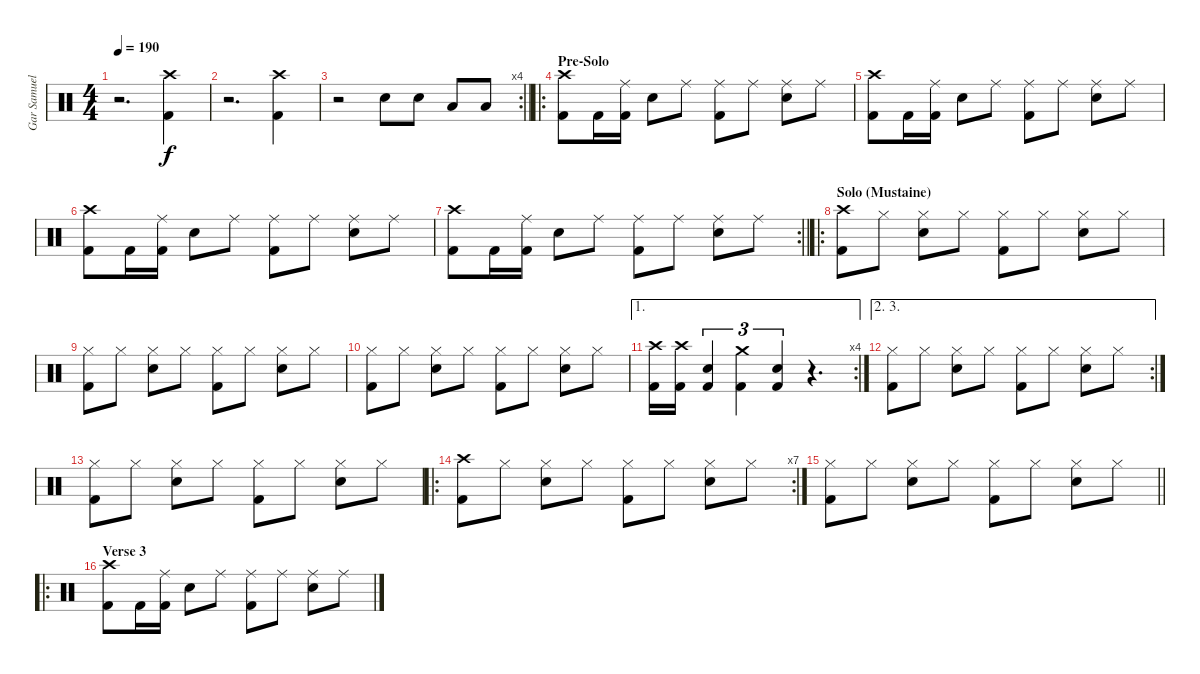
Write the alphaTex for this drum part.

\track ("Gar Samuelson" "Gar Samuel") {instrument percussion}
\staff
\articulation defaults
\ts (4 4)
\tempo 190
\clef neutral
\ks c
r.2{d dy f} ("Crash high (hit)" "Kick (hit) 2").4 |
r.2{d} ("Crash high (hit)" "Kick (hit) 2").4 |
\rc 4
\barLineRight lightlight
r.2 "Snare (hit) 2".8 "Snare (hit) 2".8 "Low Tom (hit)".8 "Low Tom (hit)".8 |
\ro
\section ("" "Pre-Solo")
("Crash high (hit)" "Kick (hit) 2").8 "Kick (hit) 2".16 ("Ride (middle)" "Kick (hit) 2").16 "Snare (hit) 2".8 "Ride (middle)".8 ("Ride (middle)" "Kick (hit) 2").8 "Ride (middle)".8 ("Ride (middle)" "Snare (hit) 2").8 "Ride (middle)".8 |
("Crash high (hit)" "Kick (hit) 2").8 "Kick (hit) 2".16 ("Ride (middle)" "Kick (hit) 2").16 "Snare (hit) 2".8 "Ride (middle)".8 ("Ride (middle)" "Kick (hit) 2").8 "Ride (middle)".8 ("Ride (middle)" "Snare (hit) 2").8 "Ride (middle)".8 |
("Crash high (hit)" "Kick (hit) 2").8 "Kick (hit) 2".16 ("Ride (middle)" "Kick (hit) 2").16 "Snare (hit) 2".8 "Ride (middle)".8 ("Ride (middle)" "Kick (hit) 2").8 "Ride (middle)".8 ("Ride (middle)" "Snare (hit) 2").8 "Ride (middle)".8 |
\rc 2
\barLineRight lightlight
("Crash high (hit)" "Kick (hit) 2").8 "Kick (hit) 2".16 ("Ride (middle)" "Kick (hit) 2").16 "Snare (hit) 2".8 "Ride (middle)".8 ("Ride (middle)" "Kick (hit) 2").8 "Ride (middle)".8 ("Ride (middle)" "Snare (hit) 2").8 "Ride (middle)".8 |
\ro
\section ("" "Solo (Mustaine)")
("Crash high (hit)" "Kick (hit) 2").8 "Hi-Hat (closed)".8 ("Hi-Hat (closed)" "Snare (hit) 2").8 "Hi-Hat (closed)".8 ("Hi-Hat (closed)" "Kick (hit) 2").8 "Hi-Hat (closed)".8 ("Hi-Hat (closed)" "Snare (hit) 2").8 "Hi-Hat (closed)".8 |
("Hi-Hat (closed)" "Kick (hit) 2").8 "Hi-Hat (closed)".8 ("Hi-Hat (closed)" "Snare (hit) 2").8 "Hi-Hat (closed)".8 ("Hi-Hat (closed)" "Kick (hit) 2").8 "Hi-Hat (closed)".8 ("Hi-Hat (closed)" "Snare (hit) 2").8 "Hi-Hat (closed)".8 |
("Hi-Hat (closed)" "Kick (hit) 2").8 "Hi-Hat (closed)".8 ("Hi-Hat (closed)" "Snare (hit) 2").8 "Hi-Hat (closed)".8 ("Hi-Hat (closed)" "Kick (hit) 2").8 "Hi-Hat (closed)".8 ("Hi-Hat (closed)" "Snare (hit) 2").8 "Hi-Hat (closed)".8 |
\ae 1
\rc 4
("Crash high (hit)" "Kick (hit) 2").16 ("Crash high (hit)" "Kick (hit) 2").16 ("Snare (hit) 2" "Kick (hit) 2").4{tu (3 2)} ("Crash medium (hit)" "Kick (hit) 2").4{tu (3 2)} ("Snare (hit) 2" "Kick (hit) 2").4{tu (3 2)} r.4{d} |
\ae (2 3)
\rc 2
("Hi-Hat (closed)" "Kick (hit) 2").8 "Hi-Hat (closed)".8 ("Hi-Hat (closed)" "Snare (hit) 2").8 "Hi-Hat (closed)".8 ("Hi-Hat (closed)" "Kick (hit) 2").8 "Hi-Hat (closed)".8 ("Hi-Hat (closed)" "Snare (hit) 2").8 "Hi-Hat (closed)".8 |
("Hi-Hat (closed)" "Kick (hit) 2").8 "Hi-Hat (closed)".8 ("Hi-Hat (closed)" "Snare (hit) 2").8 "Hi-Hat (closed)".8 ("Hi-Hat (closed)" "Kick (hit) 2").8 "Hi-Hat (closed)".8 ("Hi-Hat (closed)" "Snare (hit) 2").8 "Hi-Hat (closed)".8 |
\ro
\rc 7
("Crash high (hit)" "Kick (hit) 2").8 "Hi-Hat (closed)".8 ("Hi-Hat (closed)" "Snare (hit) 2").8 "Hi-Hat (closed)".8 ("Hi-Hat (closed)" "Kick (hit) 2").8 "Hi-Hat (closed)".8 ("Hi-Hat (closed)" "Snare (hit) 2").8 "Hi-Hat (closed)".8 |
\barLineRight lightlight
("Hi-Hat (closed)" "Kick (hit) 2").8 "Hi-Hat (closed)".8 ("Hi-Hat (closed)" "Snare (hit) 2").8 "Hi-Hat (closed)".8 ("Hi-Hat (closed)" "Kick (hit) 2").8 "Hi-Hat (closed)".8 ("Hi-Hat (closed)" "Snare (hit) 2").8 "Hi-Hat (closed)".8 |
\ro
\section ("" "Verse 3")
("Crash high (hit)" "Kick (hit) 2").8 "Kick (hit) 2".16 ("Ride (middle)" "Kick (hit) 2").16 "Snare (hit) 2".8 "Ride (middle)".8 ("Ride (middle)" "Kick (hit) 2").8 "Ride (middle)".8 ("Ride (middle)" "Snare (hit) 2").8 "Ride (middle)".8
